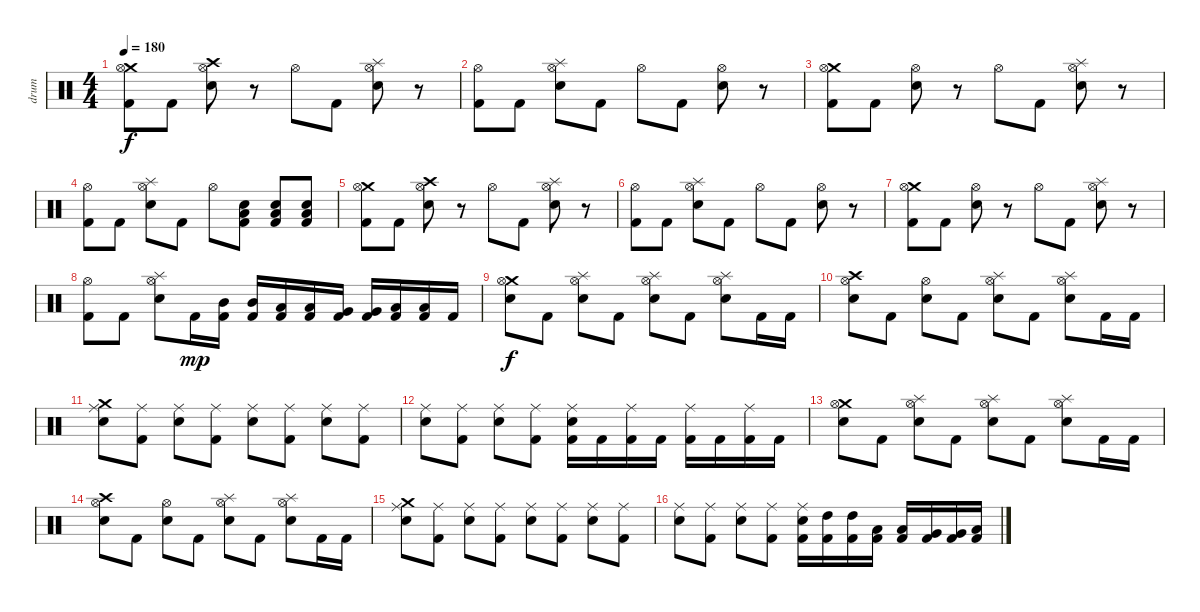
\track ("drum" "drum") {instrument percussion}
\staff {score}
\articulation defaults
\ts (4 4)
\tempo 180
\clef neutral
\ks c
("Crash medium (hit)" "Hi-Hat (open)" "Kick (hit) 2").8{dy f} "Kick (hit) 2".8 ("Crash high (hit)" "Hi-Hat (open)" "Electric Snare (hit)").8 r.8 "Hi-Hat (open)".8 "Kick (hit) 2".8 ("Splash (hit)" "Hi-Hat (open)" "Electric Snare (hit)").8 r.8 |
("Hi-Hat (open)" "Kick (hit) 2").8 "Kick (hit) 2".8 ("Splash (hit)" "Hi-Hat (open)" "Electric Snare (hit)").8 "Kick (hit) 2".8 "Hi-Hat (open)".8 "Kick (hit) 2".8 ("Hi-Hat (open)" "Electric Snare (hit)").8 r.8 |
("Crash medium (hit)" "Hi-Hat (open)" "Kick (hit) 2").8 "Kick (hit) 2".8 ("Hi-Hat (open)" "Electric Snare (hit)").8 r.8 "Hi-Hat (open)".8 "Kick (hit) 2".8 ("Splash (hit)" "Hi-Hat (open)" "Electric Snare (hit)").8 r.8 |
("Hi-Hat (open)" "Kick (hit) 2").8 "Kick (hit) 2".8 ("Splash (hit)" "Hi-Hat (open)" "Electric Snare (hit)").8 "Kick (hit) 2".8 "Hi-Hat (open)".8 ("Low Floor Tom (hit)" "Electric Snare (hit)" "Kick (hit) 2").8 ("Low Floor Tom (hit)" "Electric Snare (hit)" "Kick (hit) 2").8 ("Low Floor Tom (hit)" "Electric Snare (hit)" "Kick (hit) 2").8 |
("Crash medium (hit)" "Hi-Hat (open)" "Kick (hit) 2").8 "Kick (hit) 2".8 ("Crash high (hit)" "Hi-Hat (open)" "Electric Snare (hit)").8 r.8 "Hi-Hat (open)".8 "Kick (hit) 2".8 ("Splash (hit)" "Hi-Hat (open)" "Electric Snare (hit)").8 r.8 |
("Hi-Hat (open)" "Kick (hit) 2").8 "Kick (hit) 2".8 ("Splash (hit)" "Hi-Hat (open)" "Electric Snare (hit)").8 "Kick (hit) 2".8 "Hi-Hat (open)".8 "Kick (hit) 2".8 ("Hi-Hat (open)" "Electric Snare (hit)").8 r.8 |
("Crash medium (hit)" "Hi-Hat (open)" "Kick (hit) 2").8 "Kick (hit) 2".8 ("Hi-Hat (open)" "Electric Snare (hit)").8 r.8 "Hi-Hat (open)".8 "Kick (hit) 2".8 ("Splash (hit)" "Hi-Hat (open)" "Electric Snare (hit)").8 r.8 |
("Hi-Hat (open)" "Kick (hit) 2").8 "Kick (hit) 2".8 ("Splash (hit)" "Hi-Hat (open)" "Electric Snare (hit)").8 "Kick (hit) 2".16{dy mp} ("Mid Tom (hit)" "Kick (hit) 2").16 ("Mid Tom (hit)" "Kick (hit) 2").16 ("Low Tom (hit)" "Kick (hit) 2").16 ("Low Tom (hit)" "Kick (hit) 2").16 ("Very Low Tom (hit)" "Kick (hit) 2").16 ("Very Low Tom (hit)" "Kick (hit) 2").16 ("Low Floor Tom (hit)" "Kick (hit) 2").16 ("Low Floor Tom (hit)" "Kick (hit) 2").16 "Kick (hit) 2".16 |
("Crash medium (hit)" "Hi-Hat (open)" "Electric Snare (hit)").8{dy f} "Kick (hit) 2".8 ("Splash (hit)" "Hi-Hat (open)" "Electric Snare (hit)").8 "Kick (hit) 2".8 ("Splash (hit)" "Hi-Hat (open)" "Electric Snare (hit)").8 "Kick (hit) 2".8 ("Splash (hit)" "Hi-Hat (open)" "Electric Snare (hit)").8 "Kick (hit) 2".16 "Kick (hit) 2".16 |
("Crash high (hit)" "Hi-Hat (open)" "Electric Snare (hit)").8 "Kick (hit) 2".8 ("Hi-Hat (open)" "Electric Snare (hit)").8 "Kick (hit) 2".8 ("Splash (hit)" "Hi-Hat (open)" "Electric Snare (hit)").8 "Kick (hit) 2".8 ("Splash (hit)" "Hi-Hat (open)" "Electric Snare (hit)").8 "Kick (hit) 2".16 "Kick (hit) 2".16 |
("Crash medium (hit)" "Ride (middle)" "Electric Snare (hit)").8 ("Ride (middle)" "Kick (hit) 2").8 ("Ride (middle)" "Electric Snare (hit)").8 ("Ride (middle)" "Kick (hit) 2").8 ("Ride (middle)" "Electric Snare (hit)").8 ("Ride (middle)" "Kick (hit) 2").8 ("Ride (middle)" "Electric Snare (hit)").8 ("Ride (middle)" "Kick (hit) 2").8 |
("Ride (middle)" "Electric Snare (hit)").8 ("Ride (middle)" "Kick (hit) 2").8 ("Ride (middle)" "Electric Snare (hit)").8 ("Ride (middle)" "Kick (hit) 2").8 ("Ride (middle)" "Electric Snare (hit)" "Kick (hit) 2").16 "Kick (hit) 2".16 ("Ride (middle)" "Kick (hit) 2").16 "Kick (hit) 2".16 ("Ride (middle)" "Kick (hit) 2").16 "Kick (hit) 2".16 ("Ride (middle)" "Kick (hit) 2").16 "Kick (hit) 2".16 |
("Crash medium (hit)" "Hi-Hat (open)" "Electric Snare (hit)").8 "Kick (hit) 2".8 ("Splash (hit)" "Hi-Hat (open)" "Electric Snare (hit)").8 "Kick (hit) 2".8 ("Splash (hit)" "Hi-Hat (open)" "Electric Snare (hit)").8 "Kick (hit) 2".8 ("Splash (hit)" "Hi-Hat (open)" "Electric Snare (hit)").8 "Kick (hit) 2".16 "Kick (hit) 2".16 |
("Crash high (hit)" "Hi-Hat (open)" "Electric Snare (hit)").8 "Kick (hit) 2".8 ("Hi-Hat (open)" "Electric Snare (hit)").8 "Kick (hit) 2".8 ("Splash (hit)" "Hi-Hat (open)" "Electric Snare (hit)").8 "Kick (hit) 2".8 ("Splash (hit)" "Hi-Hat (open)" "Electric Snare (hit)").8 "Kick (hit) 2".16 "Kick (hit) 2".16 |
("Crash medium (hit)" "Ride (middle)" "Electric Snare (hit)").8 ("Ride (middle)" "Kick (hit) 2").8 ("Ride (middle)" "Electric Snare (hit)").8 ("Ride (middle)" "Kick (hit) 2").8 ("Ride (middle)" "Electric Snare (hit)").8 ("Ride (middle)" "Kick (hit) 2").8 ("Ride (middle)" "Electric Snare (hit)").8 ("Ride (middle)" "Kick (hit) 2").8 |
("Ride (middle)" "Electric Snare (hit)").8 ("Ride (middle)" "Kick (hit) 2").8 ("Ride (middle)" "Electric Snare (hit)").8 ("Ride (middle)" "Kick (hit) 2").8 ("Ride (middle)" "Electric Snare (hit)" "Kick (hit) 2").16 ("High Tom (hit)" "Kick (hit) 2").16 ("High Tom (hit)" "Kick (hit) 2").16 ("Low Tom (hit)" "Kick (hit) 2").16 ("Low Tom (hit)" "Kick (hit) 2").16 ("Very Low Tom (hit)" "Kick (hit) 2").16 ("Very Low Tom (hit)" "Kick (hit) 2").16 ("Low Floor Tom (hit)" "Kick (hit) 2").16
